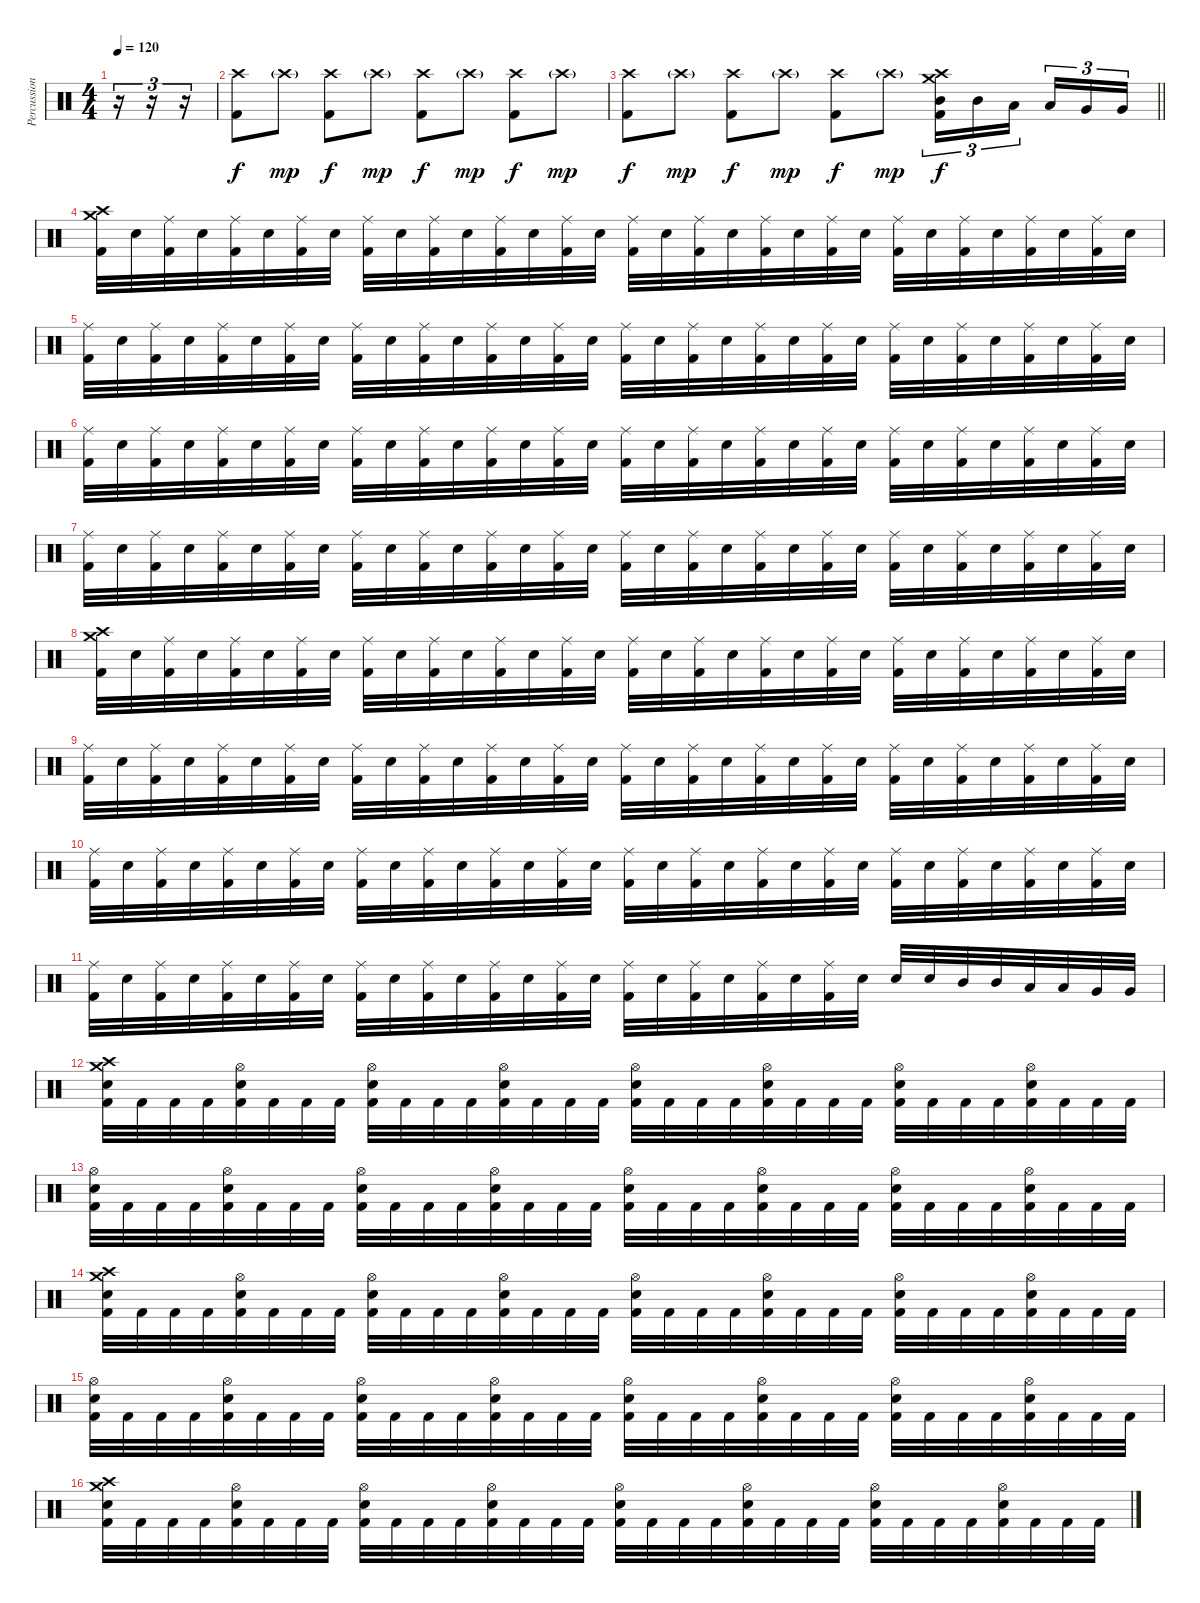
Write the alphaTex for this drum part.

\track ("Percussion" "Percussion") {instrument percussion}
\staff {score}
\articulation defaults
\ts (4 4)
\tempo 120
\clef neutral
\ks c
r.16{tu (3 2) dy mp} r.16{tu (3 2)} r.16{tu (3 2)} |
("Crash high (hit)" "Kick (hit) 2").8{dy f} "Crash high (hit)"{g}.8{dy mp} ("Crash high (hit)" "Kick (hit) 2").8{dy f} "Crash high (hit)"{g}.8{dy mp} ("Crash high (hit)" "Kick (hit) 2").8{dy f} "Crash high (hit)"{g}.8{dy mp} ("Crash high (hit)" "Kick (hit) 2").8{dy f} "Crash high (hit)"{g}.8{dy mp} |
\barLineRight lightlight
("Crash high (hit)" "Kick (hit) 2").8{dy f} "Crash high (hit)"{g}.8{dy mp} ("Crash high (hit)" "Kick (hit) 2").8{dy f} "Crash high (hit)"{g}.8{dy mp} ("Crash high (hit)" "Kick (hit) 2").8{dy f} "Crash high (hit)"{g}.8{dy mp} ("Crash medium (hit)" "Crash high (hit)" "Mid Tom (hit)" "Kick (hit) 2").16{tu (3 2) dy f} "Mid Tom (hit)".16{tu (3 2)} "Low Tom (hit)".16{tu (3 2) beam splitsecondary} "Low Tom (hit)".16{tu (3 2)} "Very Low Tom (hit)".16{tu (3 2)} "Very Low Tom (hit)".16{tu (3 2)} |
("Crash medium (hit)" "Crash high (hit)" "Kick (hit) 2").32 "Electric Snare (hit)".32 ("Ride (middle)" "Kick (hit) 2").32 "Electric Snare (hit)".32 ("Ride (middle)" "Kick (hit) 2").32 "Electric Snare (hit)".32 ("Ride (middle)" "Kick (hit) 2").32 "Electric Snare (hit)".32 ("Ride (middle)" "Kick (hit) 2").32 "Electric Snare (hit)".32 ("Ride (middle)" "Kick (hit) 2").32 "Electric Snare (hit)".32 ("Ride (middle)" "Kick (hit) 2").32 "Electric Snare (hit)".32 ("Ride (middle)" "Kick (hit) 2").32 "Electric Snare (hit)".32 ("Ride (middle)" "Kick (hit) 2").32 "Electric Snare (hit)".32 ("Ride (middle)" "Kick (hit) 2").32 "Electric Snare (hit)".32 ("Ride (middle)" "Kick (hit) 2").32 "Electric Snare (hit)".32 ("Ride (middle)" "Kick (hit) 2").32 "Electric Snare (hit)".32 ("Ride (middle)" "Kick (hit) 2").32 "Electric Snare (hit)".32 ("Ride (middle)" "Kick (hit) 2").32 "Electric Snare (hit)".32 ("Ride (middle)" "Kick (hit) 2").32 "Electric Snare (hit)".32 ("Ride (middle)" "Kick (hit) 2").32 "Electric Snare (hit)".32 |
("Ride (middle)" "Kick (hit) 2").32 "Electric Snare (hit)".32 ("Ride (middle)" "Kick (hit) 2").32 "Electric Snare (hit)".32 ("Ride (middle)" "Kick (hit) 2").32 "Electric Snare (hit)".32 ("Ride (middle)" "Kick (hit) 2").32 "Electric Snare (hit)".32 ("Ride (middle)" "Kick (hit) 2").32 "Electric Snare (hit)".32 ("Ride (middle)" "Kick (hit) 2").32 "Electric Snare (hit)".32 ("Ride (middle)" "Kick (hit) 2").32 "Electric Snare (hit)".32 ("Ride (middle)" "Kick (hit) 2").32 "Electric Snare (hit)".32 ("Ride (middle)" "Kick (hit) 2").32 "Electric Snare (hit)".32 ("Ride (middle)" "Kick (hit) 2").32 "Electric Snare (hit)".32 ("Ride (middle)" "Kick (hit) 2").32 "Electric Snare (hit)".32 ("Ride (middle)" "Kick (hit) 2").32 "Electric Snare (hit)".32 ("Ride (middle)" "Kick (hit) 2").32 "Electric Snare (hit)".32 ("Ride (middle)" "Kick (hit) 2").32 "Electric Snare (hit)".32 ("Ride (middle)" "Kick (hit) 2").32 "Electric Snare (hit)".32 ("Ride (middle)" "Kick (hit) 2").32 "Electric Snare (hit)".32 |
("Ride (middle)" "Kick (hit) 2").32 "Electric Snare (hit)".32 ("Ride (middle)" "Kick (hit) 2").32 "Electric Snare (hit)".32 ("Ride (middle)" "Kick (hit) 2").32 "Electric Snare (hit)".32 ("Ride (middle)" "Kick (hit) 2").32 "Electric Snare (hit)".32 ("Ride (middle)" "Kick (hit) 2").32 "Electric Snare (hit)".32 ("Ride (middle)" "Kick (hit) 2").32 "Electric Snare (hit)".32 ("Ride (middle)" "Kick (hit) 2").32 "Electric Snare (hit)".32 ("Ride (middle)" "Kick (hit) 2").32 "Electric Snare (hit)".32 ("Ride (middle)" "Kick (hit) 2").32 "Electric Snare (hit)".32 ("Ride (middle)" "Kick (hit) 2").32 "Electric Snare (hit)".32 ("Ride (middle)" "Kick (hit) 2").32 "Electric Snare (hit)".32 ("Ride (middle)" "Kick (hit) 2").32 "Electric Snare (hit)".32 ("Ride (middle)" "Kick (hit) 2").32 "Electric Snare (hit)".32 ("Ride (middle)" "Kick (hit) 2").32 "Electric Snare (hit)".32 ("Ride (middle)" "Kick (hit) 2").32 "Electric Snare (hit)".32 ("Ride (middle)" "Kick (hit) 2").32 "Electric Snare (hit)".32 |
("Ride (middle)" "Kick (hit) 2").32 "Electric Snare (hit)".32 ("Ride (middle)" "Kick (hit) 2").32 "Electric Snare (hit)".32 ("Ride (middle)" "Kick (hit) 2").32 "Electric Snare (hit)".32 ("Ride (middle)" "Kick (hit) 2").32 "Electric Snare (hit)".32 ("Ride (middle)" "Kick (hit) 2").32 "Electric Snare (hit)".32 ("Ride (middle)" "Kick (hit) 2").32 "Electric Snare (hit)".32 ("Ride (middle)" "Kick (hit) 2").32 "Electric Snare (hit)".32 ("Ride (middle)" "Kick (hit) 2").32 "Electric Snare (hit)".32 ("Ride (middle)" "Kick (hit) 2").32 "Electric Snare (hit)".32 ("Ride (middle)" "Kick (hit) 2").32 "Electric Snare (hit)".32 ("Ride (middle)" "Kick (hit) 2").32 "Electric Snare (hit)".32 ("Ride (middle)" "Kick (hit) 2").32 "Electric Snare (hit)".32 ("Ride (middle)" "Kick (hit) 2").32 "Electric Snare (hit)".32 ("Ride (middle)" "Kick (hit) 2").32 "Electric Snare (hit)".32 ("Ride (middle)" "Kick (hit) 2").32 "Electric Snare (hit)".32 ("Ride (middle)" "Kick (hit) 2").32 "Electric Snare (hit)".32 |
("Crash medium (hit)" "Crash high (hit)" "Kick (hit) 2").32 "Electric Snare (hit)".32 ("Ride (middle)" "Kick (hit) 2").32 "Electric Snare (hit)".32 ("Ride (middle)" "Kick (hit) 2").32 "Electric Snare (hit)".32 ("Ride (middle)" "Kick (hit) 2").32 "Electric Snare (hit)".32 ("Ride (middle)" "Kick (hit) 2").32 "Electric Snare (hit)".32 ("Ride (middle)" "Kick (hit) 2").32 "Electric Snare (hit)".32 ("Ride (middle)" "Kick (hit) 2").32 "Electric Snare (hit)".32 ("Ride (middle)" "Kick (hit) 2").32 "Electric Snare (hit)".32 ("Ride (middle)" "Kick (hit) 2").32 "Electric Snare (hit)".32 ("Ride (middle)" "Kick (hit) 2").32 "Electric Snare (hit)".32 ("Ride (middle)" "Kick (hit) 2").32 "Electric Snare (hit)".32 ("Ride (middle)" "Kick (hit) 2").32 "Electric Snare (hit)".32 ("Ride (middle)" "Kick (hit) 2").32 "Electric Snare (hit)".32 ("Ride (middle)" "Kick (hit) 2").32 "Electric Snare (hit)".32 ("Ride (middle)" "Kick (hit) 2").32 "Electric Snare (hit)".32 ("Ride (middle)" "Kick (hit) 2").32 "Electric Snare (hit)".32 |
("Ride (middle)" "Kick (hit) 2").32 "Electric Snare (hit)".32 ("Ride (middle)" "Kick (hit) 2").32 "Electric Snare (hit)".32 ("Ride (middle)" "Kick (hit) 2").32 "Electric Snare (hit)".32 ("Ride (middle)" "Kick (hit) 2").32 "Electric Snare (hit)".32 ("Ride (middle)" "Kick (hit) 2").32 "Electric Snare (hit)".32 ("Ride (middle)" "Kick (hit) 2").32 "Electric Snare (hit)".32 ("Ride (middle)" "Kick (hit) 2").32 "Electric Snare (hit)".32 ("Ride (middle)" "Kick (hit) 2").32 "Electric Snare (hit)".32 ("Ride (middle)" "Kick (hit) 2").32 "Electric Snare (hit)".32 ("Ride (middle)" "Kick (hit) 2").32 "Electric Snare (hit)".32 ("Ride (middle)" "Kick (hit) 2").32 "Electric Snare (hit)".32 ("Ride (middle)" "Kick (hit) 2").32 "Electric Snare (hit)".32 ("Ride (middle)" "Kick (hit) 2").32 "Electric Snare (hit)".32 ("Ride (middle)" "Kick (hit) 2").32 "Electric Snare (hit)".32 ("Ride (middle)" "Kick (hit) 2").32 "Electric Snare (hit)".32 ("Ride (middle)" "Kick (hit) 2").32 "Electric Snare (hit)".32 |
("Ride (middle)" "Kick (hit) 2").32 "Electric Snare (hit)".32 ("Ride (middle)" "Kick (hit) 2").32 "Electric Snare (hit)".32 ("Ride (middle)" "Kick (hit) 2").32 "Electric Snare (hit)".32 ("Ride (middle)" "Kick (hit) 2").32 "Electric Snare (hit)".32 ("Ride (middle)" "Kick (hit) 2").32 "Electric Snare (hit)".32 ("Ride (middle)" "Kick (hit) 2").32 "Electric Snare (hit)".32 ("Ride (middle)" "Kick (hit) 2").32 "Electric Snare (hit)".32 ("Ride (middle)" "Kick (hit) 2").32 "Electric Snare (hit)".32 ("Ride (middle)" "Kick (hit) 2").32 "Electric Snare (hit)".32 ("Ride (middle)" "Kick (hit) 2").32 "Electric Snare (hit)".32 ("Ride (middle)" "Kick (hit) 2").32 "Electric Snare (hit)".32 ("Ride (middle)" "Kick (hit) 2").32 "Electric Snare (hit)".32 ("Ride (middle)" "Kick (hit) 2").32 "Electric Snare (hit)".32 ("Ride (middle)" "Kick (hit) 2").32 "Electric Snare (hit)".32 ("Ride (middle)" "Kick (hit) 2").32 "Electric Snare (hit)".32 ("Ride (middle)" "Kick (hit) 2").32 "Electric Snare (hit)".32 |
("Ride (middle)" "Kick (hit) 2").32 "Electric Snare (hit)".32 ("Ride (middle)" "Kick (hit) 2").32 "Electric Snare (hit)".32 ("Ride (middle)" "Kick (hit) 2").32 "Electric Snare (hit)".32 ("Ride (middle)" "Kick (hit) 2").32 "Electric Snare (hit)".32 ("Ride (middle)" "Kick (hit) 2").32 "Electric Snare (hit)".32 ("Ride (middle)" "Kick (hit) 2").32 "Electric Snare (hit)".32 ("Ride (middle)" "Kick (hit) 2").32 "Electric Snare (hit)".32 ("Ride (middle)" "Kick (hit) 2").32 "Electric Snare (hit)".32 ("Ride (middle)" "Kick (hit) 2").32 "Electric Snare (hit)".32 ("Ride (middle)" "Kick (hit) 2").32 "Electric Snare (hit)".32 ("Ride (middle)" "Kick (hit) 2").32 "Electric Snare (hit)".32 ("Ride (middle)" "Kick (hit) 2").32 "Electric Snare (hit)".32 "Electric Snare (hit)".32 "Electric Snare (hit)".32 "Mid Tom (hit)".32 "Mid Tom (hit)".32 "Low Tom (hit)".32 "Low Tom (hit)".32 "Very Low Tom (hit)".32 "Very Low Tom (hit)".32 |
("Crash medium (hit)" "Crash high (hit)" "Electric Snare (hit)" "Kick (hit) 2").32 "Kick (hit) 2".32 "Kick (hit) 2".32 "Kick (hit) 2".32 ("Hi-Hat (open)" "Electric Snare (hit)" "Kick (hit) 2").32 "Kick (hit) 2".32 "Kick (hit) 2".32 "Kick (hit) 2".32 ("Hi-Hat (open)" "Electric Snare (hit)" "Kick (hit) 2").32 "Kick (hit) 2".32 "Kick (hit) 2".32 "Kick (hit) 2".32 ("Hi-Hat (open)" "Electric Snare (hit)" "Kick (hit) 2").32 "Kick (hit) 2".32 "Kick (hit) 2".32 "Kick (hit) 2".32 ("Hi-Hat (open)" "Electric Snare (hit)" "Kick (hit) 2").32 "Kick (hit) 2".32 "Kick (hit) 2".32 "Kick (hit) 2".32 ("Hi-Hat (open)" "Electric Snare (hit)" "Kick (hit) 2").32 "Kick (hit) 2".32 "Kick (hit) 2".32 "Kick (hit) 2".32 ("Hi-Hat (open)" "Electric Snare (hit)" "Kick (hit) 2").32 "Kick (hit) 2".32 "Kick (hit) 2".32 "Kick (hit) 2".32 ("Hi-Hat (open)" "Electric Snare (hit)" "Kick (hit) 2").32 "Kick (hit) 2".32 "Kick (hit) 2".32 "Kick (hit) 2".32 |
("Hi-Hat (open)" "Electric Snare (hit)" "Kick (hit) 2").32 "Kick (hit) 2".32 "Kick (hit) 2".32 "Kick (hit) 2".32 ("Hi-Hat (open)" "Electric Snare (hit)" "Kick (hit) 2").32 "Kick (hit) 2".32 "Kick (hit) 2".32 "Kick (hit) 2".32 ("Hi-Hat (open)" "Electric Snare (hit)" "Kick (hit) 2").32 "Kick (hit) 2".32 "Kick (hit) 2".32 "Kick (hit) 2".32 ("Hi-Hat (open)" "Electric Snare (hit)" "Kick (hit) 2").32 "Kick (hit) 2".32 "Kick (hit) 2".32 "Kick (hit) 2".32 ("Hi-Hat (open)" "Electric Snare (hit)" "Kick (hit) 2").32 "Kick (hit) 2".32 "Kick (hit) 2".32 "Kick (hit) 2".32 ("Hi-Hat (open)" "Electric Snare (hit)" "Kick (hit) 2").32 "Kick (hit) 2".32 "Kick (hit) 2".32 "Kick (hit) 2".32 ("Hi-Hat (open)" "Electric Snare (hit)" "Kick (hit) 2").32 "Kick (hit) 2".32 "Kick (hit) 2".32 "Kick (hit) 2".32 ("Hi-Hat (open)" "Electric Snare (hit)" "Kick (hit) 2").32 "Kick (hit) 2".32 "Kick (hit) 2".32 "Kick (hit) 2".32 |
("Crash medium (hit)" "Crash high (hit)" "Electric Snare (hit)" "Kick (hit) 2").32 "Kick (hit) 2".32 "Kick (hit) 2".32 "Kick (hit) 2".32 ("Hi-Hat (open)" "Electric Snare (hit)" "Kick (hit) 2").32 "Kick (hit) 2".32 "Kick (hit) 2".32 "Kick (hit) 2".32 ("Hi-Hat (open)" "Electric Snare (hit)" "Kick (hit) 2").32 "Kick (hit) 2".32 "Kick (hit) 2".32 "Kick (hit) 2".32 ("Hi-Hat (open)" "Electric Snare (hit)" "Kick (hit) 2").32 "Kick (hit) 2".32 "Kick (hit) 2".32 "Kick (hit) 2".32 ("Hi-Hat (open)" "Electric Snare (hit)" "Kick (hit) 2").32 "Kick (hit) 2".32 "Kick (hit) 2".32 "Kick (hit) 2".32 ("Hi-Hat (open)" "Electric Snare (hit)" "Kick (hit) 2").32 "Kick (hit) 2".32 "Kick (hit) 2".32 "Kick (hit) 2".32 ("Hi-Hat (open)" "Electric Snare (hit)" "Kick (hit) 2").32 "Kick (hit) 2".32 "Kick (hit) 2".32 "Kick (hit) 2".32 ("Hi-Hat (open)" "Electric Snare (hit)" "Kick (hit) 2").32 "Kick (hit) 2".32 "Kick (hit) 2".32 "Kick (hit) 2".32 |
("Hi-Hat (open)" "Electric Snare (hit)" "Kick (hit) 2").32 "Kick (hit) 2".32 "Kick (hit) 2".32 "Kick (hit) 2".32 ("Hi-Hat (open)" "Electric Snare (hit)" "Kick (hit) 2").32 "Kick (hit) 2".32 "Kick (hit) 2".32 "Kick (hit) 2".32 ("Hi-Hat (open)" "Electric Snare (hit)" "Kick (hit) 2").32 "Kick (hit) 2".32 "Kick (hit) 2".32 "Kick (hit) 2".32 ("Hi-Hat (open)" "Electric Snare (hit)" "Kick (hit) 2").32 "Kick (hit) 2".32 "Kick (hit) 2".32 "Kick (hit) 2".32 ("Hi-Hat (open)" "Electric Snare (hit)" "Kick (hit) 2").32 "Kick (hit) 2".32 "Kick (hit) 2".32 "Kick (hit) 2".32 ("Hi-Hat (open)" "Electric Snare (hit)" "Kick (hit) 2").32 "Kick (hit) 2".32 "Kick (hit) 2".32 "Kick (hit) 2".32 ("Hi-Hat (open)" "Electric Snare (hit)" "Kick (hit) 2").32 "Kick (hit) 2".32 "Kick (hit) 2".32 "Kick (hit) 2".32 ("Hi-Hat (open)" "Electric Snare (hit)" "Kick (hit) 2").32 "Kick (hit) 2".32 "Kick (hit) 2".32 "Kick (hit) 2".32 |
("Crash medium (hit)" "Crash high (hit)" "Electric Snare (hit)" "Kick (hit) 2").32 "Kick (hit) 2".32 "Kick (hit) 2".32 "Kick (hit) 2".32 ("Hi-Hat (open)" "Electric Snare (hit)" "Kick (hit) 2").32 "Kick (hit) 2".32 "Kick (hit) 2".32 "Kick (hit) 2".32 ("Hi-Hat (open)" "Electric Snare (hit)" "Kick (hit) 2").32 "Kick (hit) 2".32 "Kick (hit) 2".32 "Kick (hit) 2".32 ("Hi-Hat (open)" "Electric Snare (hit)" "Kick (hit) 2").32 "Kick (hit) 2".32 "Kick (hit) 2".32 "Kick (hit) 2".32 ("Hi-Hat (open)" "Electric Snare (hit)" "Kick (hit) 2").32 "Kick (hit) 2".32 "Kick (hit) 2".32 "Kick (hit) 2".32 ("Hi-Hat (open)" "Electric Snare (hit)" "Kick (hit) 2").32 "Kick (hit) 2".32 "Kick (hit) 2".32 "Kick (hit) 2".32 ("Hi-Hat (open)" "Electric Snare (hit)" "Kick (hit) 2").32 "Kick (hit) 2".32 "Kick (hit) 2".32 "Kick (hit) 2".32 ("Hi-Hat (open)" "Electric Snare (hit)" "Kick (hit) 2").32 "Kick (hit) 2".32 "Kick (hit) 2".32 "Kick (hit) 2".32
